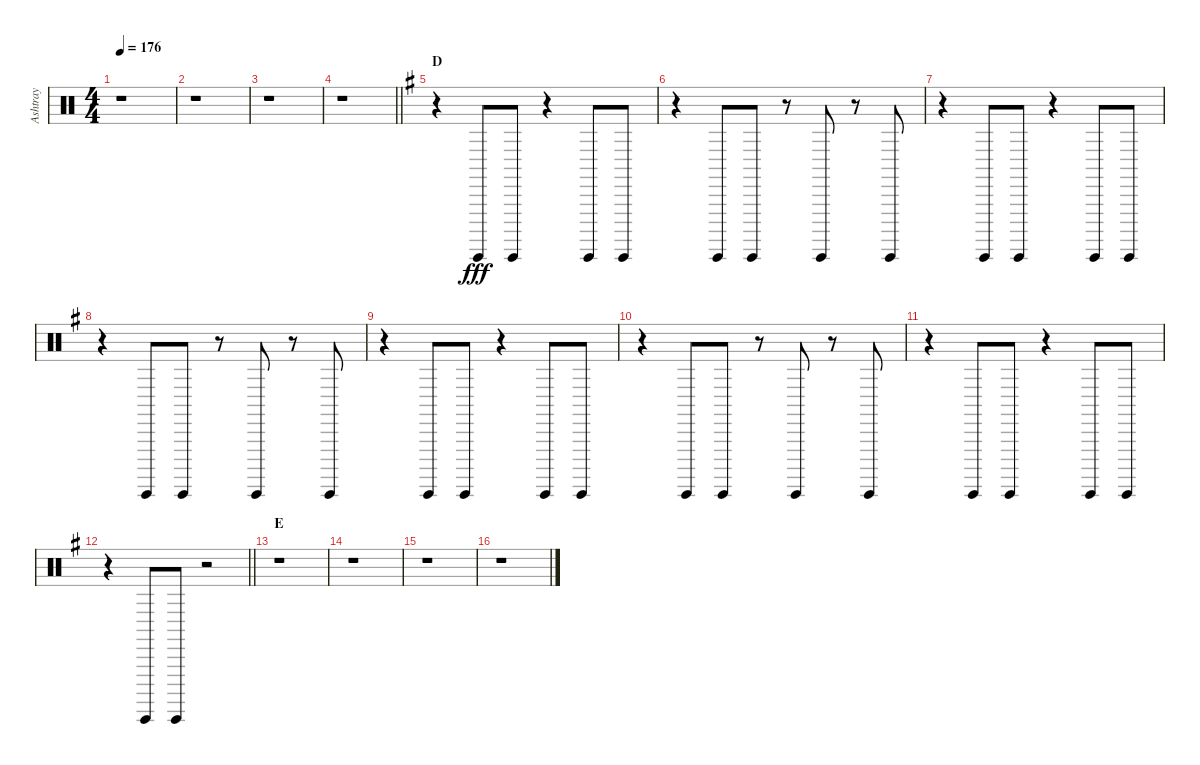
\track ("Ashtray" "Ashtray") {instrument percussion}
\staff {score}
\articulation defaults
\ts (4 4)
\tempo 176
\clef neutral
\ks c
r.1{dy fff} |
r.1 |
r.1 |
\barLineRight lightlight
r.1 |
\section ("" "D")
\ks g
r.4 "Guiro (hit)".8 "Guiro (hit)".8 r.4 "Guiro (hit)".8 "Guiro (hit)".8 |
r.4 "Guiro (hit)".8 "Guiro (hit)".8 r.8 "Guiro (hit)".8 r.8 "Guiro (hit)".8 |
r.4 "Guiro (hit)".8 "Guiro (hit)".8 r.4 "Guiro (hit)".8 "Guiro (hit)".8 |
r.4 "Guiro (hit)".8 "Guiro (hit)".8 r.8 "Guiro (hit)".8 r.8 "Guiro (hit)".8 |
r.4 "Guiro (hit)".8 "Guiro (hit)".8 r.4 "Guiro (hit)".8 "Guiro (hit)".8 |
r.4 "Guiro (hit)".8 "Guiro (hit)".8 r.8 "Guiro (hit)".8 r.8 "Guiro (hit)".8 |
r.4 "Guiro (hit)".8 "Guiro (hit)".8 r.4 "Guiro (hit)".8 "Guiro (hit)".8 |
\barLineRight lightlight
r.4 "Guiro (hit)".8 "Guiro (hit)".8 r.2 |
\section ("" "E")
r.1 |
r.1 |
r.1 |
r.1
